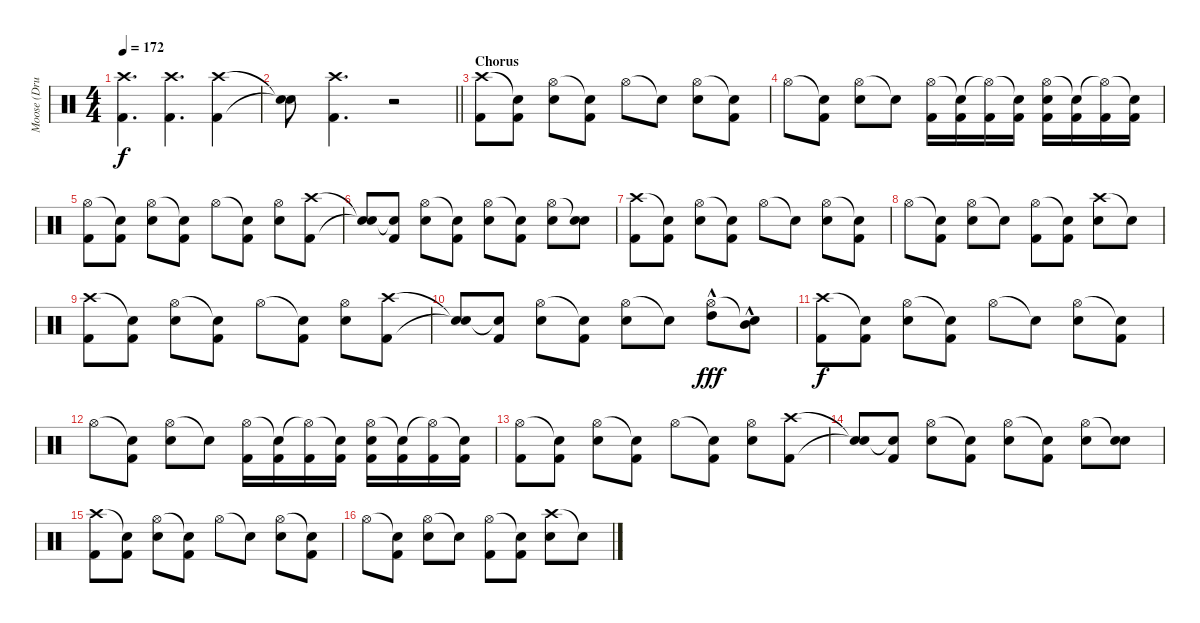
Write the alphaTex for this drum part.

\track ("Moose (Drums)" "Moose (Dru") {instrument percussion}
\staff {score}
\articulation defaults
\ts (4 4)
\tempo 172
\clef neutral
\ks c
("Crash high (hit)" "Kick (hit) 2").4{d dy f} ("Crash high (hit)" "Kick (hit) 2").4{d} ("Crash high (hit)" "Kick (hit) 2").4 |
\barLineRight lightlight
("Snare (hit)"{t} "Snare (hit)"{t}).8 ("Crash high (hit)" "Kick (hit) 2").4{d} r.2 |
\section ("" "Chorus")
("Crash high (hit)" "Kick (hit) 2").8 ("Snare (hit)"{t} "Kick (hit) 2").8 ("Hi-Hat (open)" "Electric Snare (hit)").8 ("Snare (hit)"{t} "Kick (hit) 2").8 "Hi-Hat (open)".8 "Snare (hit)"{t}.8 ("Hi-Hat (open)" "Electric Snare (hit)").8 ("Snare (hit)"{t} "Kick (hit) 2").8 |
"Hi-Hat (open)".8 ("Snare (hit)"{t} "Kick (hit) 2").8 ("Hi-Hat (open)" "Electric Snare (hit)").8 "Snare (hit)"{t}.8 ("Hi-Hat (open)" "Kick (hit) 2").16 ("Snare (hit)"{t} "Kick (hit) 2").16 ("Hi-Hat (open)"{t} "Kick (hit) 2").16 ("Snare (hit)"{t} "Kick (hit) 2").16 ("Hi-Hat (open)" "Electric Snare (hit)" "Kick (hit) 2").16 ("Snare (hit)"{t} "Kick (hit) 2").16 ("Hi-Hat (open)"{t} "Kick (hit) 2").16 ("Snare (hit)"{t} "Kick (hit) 2").16 |
("Hi-Hat (open)" "Kick (hit) 2").8 ("Snare (hit)"{t} "Kick (hit) 2").8 ("Hi-Hat (open)" "Electric Snare (hit)").8 ("Snare (hit)"{t} "Kick (hit) 2").8 "Hi-Hat (open)".8 ("Snare (hit)"{t} "Kick (hit) 2").8 ("Hi-Hat (open)" "Electric Snare (hit)").8 ("Crash high (hit)" "Kick (hit) 2").8 |
("Snare (hit)"{t} "Snare (hit)"{t}).8 ("Snare (hit)"{t} "Kick (hit) 2").8 ("Hi-Hat (open)" "Electric Snare (hit)").8 ("Snare (hit)"{t} "Kick (hit) 2").8 ("Hi-Hat (open)" "Electric Snare (hit)").8 ("Snare (hit)"{t} "Kick (hit) 2").8 ("Hi-Hat (open)" "Electric Snare (hit)").8 ("Snare (hit)"{t} "Electric Snare (hit)").8 |
("Crash high (hit)" "Kick (hit) 2").8 ("Snare (hit)"{t} "Kick (hit) 2").8 ("Hi-Hat (open)" "Electric Snare (hit)").8 ("Snare (hit)"{t} "Kick (hit) 2").8 "Hi-Hat (open)".8 "Snare (hit)"{t}.8 ("Hi-Hat (open)" "Electric Snare (hit)").8 ("Snare (hit)"{t} "Kick (hit) 2").8 |
"Hi-Hat (open)".8 ("Snare (hit)"{t} "Kick (hit) 2").8 ("Hi-Hat (open)" "Electric Snare (hit)").8 "Snare (hit)"{t}.8 ("Hi-Hat (open)" "Kick (hit) 2").8 ("Snare (hit)"{t} "Kick (hit) 2").8 ("Crash high (hit)" "Electric Snare (hit)").8 "Snare (hit)"{t}.8 |
("Crash high (hit)" "Kick (hit) 2").8 ("Snare (hit)"{t} "Kick (hit) 2").8 ("Hi-Hat (open)" "Electric Snare (hit)").8 ("Snare (hit)"{t} "Kick (hit) 2").8 "Hi-Hat (open)".8 ("Snare (hit)"{t} "Kick (hit) 2").8 ("Hi-Hat (open)" "Electric Snare (hit)").8 ("Crash high (hit)" "Kick (hit) 2").8 |
("Snare (hit)"{t} "Snare (hit)"{t}).8 ("Snare (hit)"{t} "Kick (hit) 2").8 ("Hi-Hat (open)" "Electric Snare (hit)").8 ("Snare (hit)"{t} "Kick (hit) 2").8 ("Hi-Hat (open)" "Electric Snare (hit)").8 "Snare (hit)"{t}.8 ("Hi-Hat (open)" "High Tom (hit)"{hac}).8{dy fff} ("Snare (hit)"{t} "Mid Tom (hit)"{hac}).8 |
("Crash high (hit)" "Kick (hit) 2").8{dy f} ("Snare (hit)"{t} "Kick (hit) 2").8 ("Hi-Hat (open)" "Electric Snare (hit)").8 ("Snare (hit)"{t} "Kick (hit) 2").8 "Hi-Hat (open)".8 "Snare (hit)"{t}.8 ("Hi-Hat (open)" "Electric Snare (hit)").8 ("Snare (hit)"{t} "Kick (hit) 2").8 |
"Hi-Hat (open)".8 ("Snare (hit)"{t} "Kick (hit) 2").8 ("Hi-Hat (open)" "Electric Snare (hit)").8 "Snare (hit)"{t}.8 ("Hi-Hat (open)" "Kick (hit) 2").16 ("Snare (hit)"{t} "Kick (hit) 2").16 ("Hi-Hat (open)"{t} "Kick (hit) 2").16 ("Snare (hit)"{t} "Kick (hit) 2").16 ("Hi-Hat (open)" "Electric Snare (hit)" "Kick (hit) 2").16 ("Snare (hit)"{t} "Kick (hit) 2").16 ("Hi-Hat (open)"{t} "Kick (hit) 2").16 ("Snare (hit)"{t} "Kick (hit) 2").16 |
("Hi-Hat (open)" "Kick (hit) 2").8 ("Snare (hit)"{t} "Kick (hit) 2").8 ("Hi-Hat (open)" "Electric Snare (hit)").8 ("Snare (hit)"{t} "Kick (hit) 2").8 "Hi-Hat (open)".8 ("Snare (hit)"{t} "Kick (hit) 2").8 ("Hi-Hat (open)" "Electric Snare (hit)").8 ("Crash high (hit)" "Kick (hit) 2").8 |
("Snare (hit)"{t} "Snare (hit)"{t}).8 ("Snare (hit)"{t} "Kick (hit) 2").8 ("Hi-Hat (open)" "Electric Snare (hit)").8 ("Snare (hit)"{t} "Kick (hit) 2").8 ("Hi-Hat (open)" "Electric Snare (hit)").8 ("Snare (hit)"{t} "Kick (hit) 2").8 ("Hi-Hat (open)" "Electric Snare (hit)").8 ("Snare (hit)"{t} "Electric Snare (hit)").8 |
("Crash high (hit)" "Kick (hit) 2").8 ("Snare (hit)"{t} "Kick (hit) 2").8 ("Hi-Hat (open)" "Electric Snare (hit)").8 ("Snare (hit)"{t} "Kick (hit) 2").8 "Hi-Hat (open)".8 "Snare (hit)"{t}.8 ("Hi-Hat (open)" "Electric Snare (hit)").8 ("Snare (hit)"{t} "Kick (hit) 2").8 |
"Hi-Hat (open)".8 ("Snare (hit)"{t} "Kick (hit) 2").8 ("Hi-Hat (open)" "Electric Snare (hit)").8 "Snare (hit)"{t}.8 ("Hi-Hat (open)" "Kick (hit) 2").8 ("Snare (hit)"{t} "Kick (hit) 2").8 ("Crash high (hit)" "Electric Snare (hit)").8 "Snare (hit)"{t}.8
